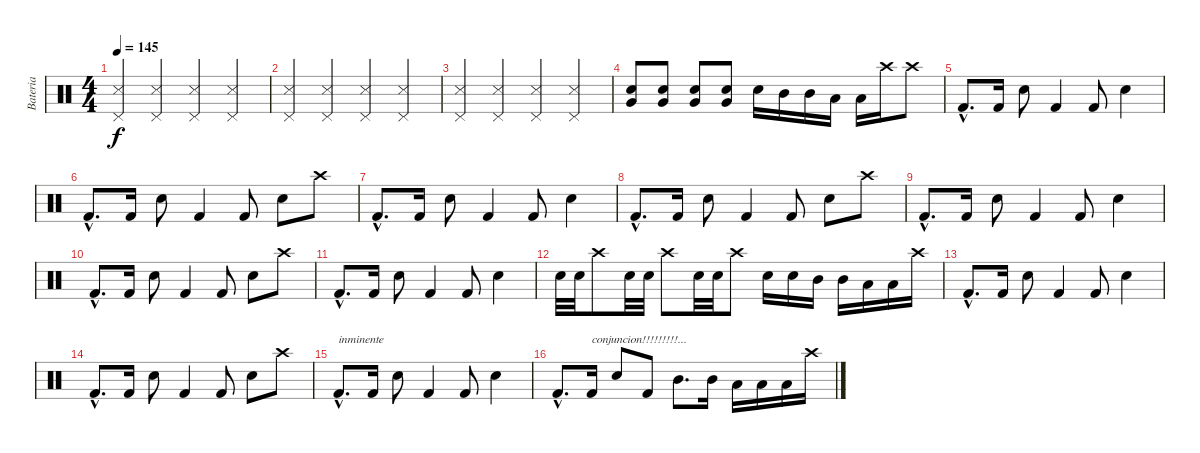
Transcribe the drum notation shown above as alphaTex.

\track (" Bateria" " Bateria") {instrument percussion}
\staff {score}
\articulation defaults
\ts (4 4)
\tempo 145
\clef neutral
\ks c
("Pedal Hi-Hat (hit)" "Snare (side stick) 3").4{dy f} ("Pedal Hi-Hat (hit)" "Snare (side stick) 3").4 ("Pedal Hi-Hat (hit)" "Snare (side stick) 3").4 ("Pedal Hi-Hat (hit)" "Snare (side stick) 3").4 |
("Pedal Hi-Hat (hit)" "Snare (side stick) 3").4 ("Pedal Hi-Hat (hit)" "Snare (side stick) 3").4 ("Pedal Hi-Hat (hit)" "Snare (side stick) 3").4 ("Pedal Hi-Hat (hit)" "Snare (side stick) 3").4 |
("Pedal Hi-Hat (hit)" "Snare (side stick) 3").4 ("Pedal Hi-Hat (hit)" "Snare (side stick) 3").4 ("Pedal Hi-Hat (hit)" "Snare (side stick) 3").4 ("Pedal Hi-Hat (hit)" "Snare (side stick) 3").4 |
("Snare (hit) 2" "Very Low Tom (hit)").8 ("Snare (hit) 2" "Very Low Tom (hit)").8 ("Snare (hit) 2" "Very Low Tom (hit)").8 ("Snare (hit) 2" "Very Low Tom (hit)").8 "Snare (hit) 2".16 "Mid Tom (hit)".16 "Mid Tom (hit)".16 "Low Tom (hit)".16 "Low Tom (hit)".16 "Crash high (hit)".16 "Crash high (hit)".8 |
"Kick (hit) 2"{hac}.8{d} "Kick (hit) 2".16 "Snare (hit) 2".8 "Kick (hit) 2".4 "Kick (hit) 2".8 "Snare (hit) 2".4 |
"Kick (hit) 2"{hac}.8{d} "Kick (hit) 2".16 "Snare (hit) 2".8 "Kick (hit) 2".4 "Kick (hit) 2".8 "Snare (hit) 2".8 "Crash high (hit)".8 |
"Kick (hit) 2"{hac}.8{d} "Kick (hit) 2".16 "Snare (hit) 2".8 "Kick (hit) 2".4 "Kick (hit) 2".8 "Snare (hit) 2".4 |
"Kick (hit) 2"{hac}.8{d} "Kick (hit) 2".16 "Snare (hit) 2".8 "Kick (hit) 2".4 "Kick (hit) 2".8 "Snare (hit) 2".8 "Crash high (hit)".8 |
"Kick (hit) 2"{hac}.8{d} "Kick (hit) 2".16 "Snare (hit) 2".8 "Kick (hit) 2".4 "Kick (hit) 2".8 "Snare (hit) 2".4 |
"Kick (hit) 2"{hac}.8{d} "Kick (hit) 2".16 "Snare (hit) 2".8 "Kick (hit) 2".4 "Kick (hit) 2".8 "Snare (hit) 2".8 "Crash high (hit)".8 |
"Kick (hit) 2"{hac}.8{d} "Kick (hit) 2".16 "Snare (hit) 2".8 "Kick (hit) 2".4 "Kick (hit) 2".8 "Snare (hit) 2".4 |
"Snare (hit) 2".32 "Snare (hit) 2".32 "Crash high (hit)".8 "Snare (hit) 2".32 "Snare (hit) 2".32 "Crash high (hit)".8 "Snare (hit) 2".32 "Snare (hit) 2".32 "Crash high (hit)".8 "Snare (hit) 2".16 "Snare (hit) 2".16 "Mid Tom (hit)".16 "Mid Tom (hit)".16 "Low Tom (hit)".16 "Low Tom (hit)".16 "Crash high (hit)".16 |
"Kick (hit) 2"{hac}.8{d} "Kick (hit) 2".16 "Snare (hit) 2".8 "Kick (hit) 2".4 "Kick (hit) 2".8 "Snare (hit) 2".4 |
"Kick (hit) 2"{hac}.8{d} "Kick (hit) 2".16 "Snare (hit) 2".8 "Kick (hit) 2".4 "Kick (hit) 2".8 "Snare (hit) 2".8 "Crash high (hit)".8 |
"Kick (hit) 2"{hac}.8{d txt "inminente"} "Kick (hit) 2".16 "Snare (hit) 2".8 "Kick (hit) 2".4 "Kick (hit) 2".8 "Snare (hit) 2".4 |
"Kick (hit) 2"{hac}.8{d} "Kick (hit) 2".16{txt "conjuncion!!!!!!!!!..."} "Snare (hit) 2".8 "Kick (hit) 2".8 "Mid Tom (hit)".8{d} "Mid Tom (hit)".16 "Low Tom (hit)".16 "Low Tom (hit)".16 "Low Tom (hit)".16 "Crash high (hit)".16
